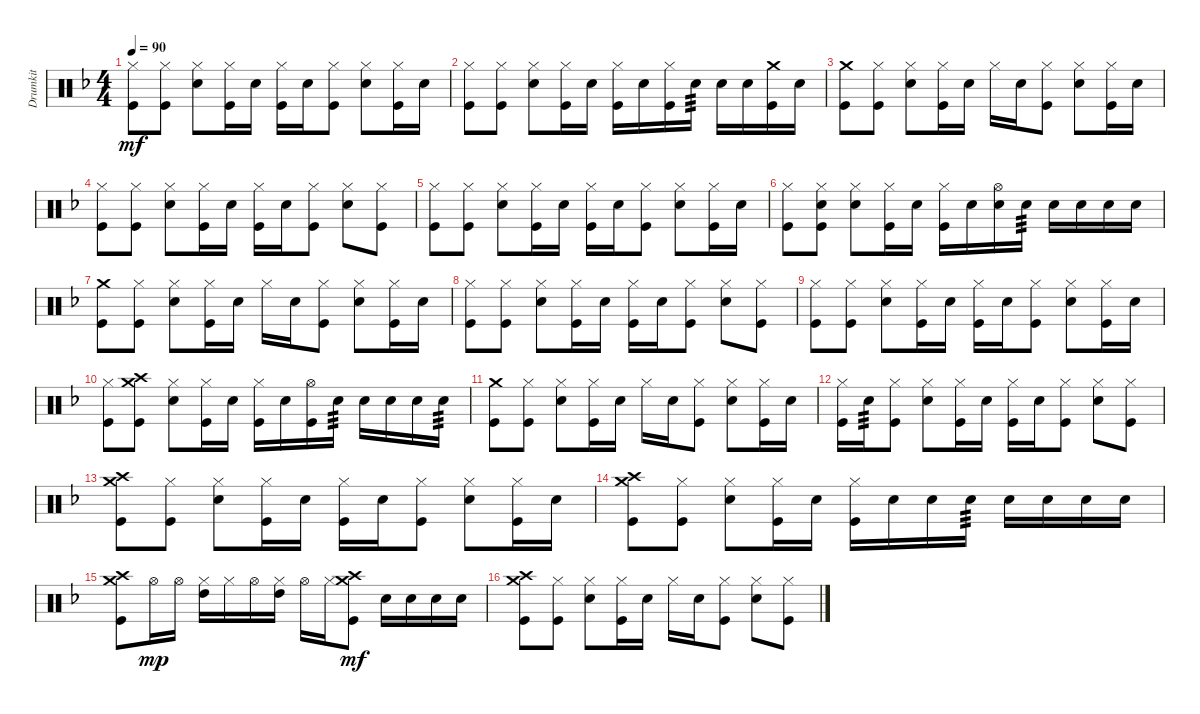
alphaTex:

\track ("Drumkit" "Drumkit") {instrument percussion}
\staff {score}
\articulation defaults
\ts (4 4)
\tempo 90
\clef neutral
\ks f
("Kick (hit)" "Hi-Hat (closed)").8{dy mf} ("Hi-Hat (closed)" "Kick (hit)").8 ("Snare (hit) 2" "Hi-Hat (closed)").8 ("Kick (hit)" "Hi-Hat (closed)").16 "Snare (hit) 2".16 ("Hi-Hat (closed)" "Kick (hit)").16 "Snare (hit) 2".16 ("Kick (hit)" "Hi-Hat (closed)").8 ("Snare (hit) 2" "Hi-Hat (closed)").8 ("Hi-Hat (closed)" "Kick (hit)").16 "Snare (hit) 2".16 |
("Kick (hit)" "Hi-Hat (closed)").8 ("Kick (hit)" "Hi-Hat (closed)").8 ("Snare (hit) 2" "Hi-Hat (closed)").8 ("Kick (hit)" "Hi-Hat (closed)").16 "Snare (hit) 2".16 ("Hi-Hat (closed)" "Kick (hit)").16 "Snare (hit) 2".16 ("Kick (hit)" "Hi-Hat (closed)").16 "Snare (hit) 2".16{tp 3} "Snare (hit) 2".16 "Snare (hit) 2".16 ("Kick (hit)" "Crash medium (hit)").16 "Snare (hit) 2".16 |
("Kick (hit)" "Crash medium (hit)").8 ("Hi-Hat (closed)" "Kick (hit)").8 ("Snare (hit) 2" "Hi-Hat (closed)").8 ("Kick (hit)" "Hi-Hat (closed)").16 "Snare (hit) 2".16 "Hi-Hat (closed)".16 "Snare (hit) 2".16 ("Kick (hit)" "Hi-Hat (closed)").8 ("Snare (hit) 2" "Hi-Hat (closed)").8 ("Hi-Hat (closed)" "Kick (hit)").16 "Snare (hit) 2".16 |
("Kick (hit)" "Hi-Hat (closed)").8 ("Kick (hit)" "Hi-Hat (closed)").8 ("Snare (hit) 2" "Hi-Hat (closed)").8 ("Kick (hit)" "Hi-Hat (closed)").16 "Snare (hit) 2".16 ("Hi-Hat (closed)" "Kick (hit)").16 "Snare (hit) 2".16 ("Kick (hit)" "Hi-Hat (closed)").8 ("Snare (hit) 2" "Hi-Hat (closed)").8 ("Kick (hit)" "Hi-Hat (closed)").8 |
("Kick (hit)" "Hi-Hat (closed)").8 ("Hi-Hat (closed)" "Kick (hit)").8 ("Snare (hit) 2" "Hi-Hat (closed)").8 ("Kick (hit)" "Hi-Hat (closed)").16 "Snare (hit) 2".16 ("Hi-Hat (closed)" "Kick (hit)").16 "Snare (hit) 2".16 ("Kick (hit)" "Hi-Hat (closed)").8 ("Snare (hit) 2" "Hi-Hat (closed)").8 ("Hi-Hat (closed)" "Kick (hit)").16 "Snare (hit) 2".16 |
("Kick (hit)" "Hi-Hat (closed)").8 ("Kick (hit)" "Hi-Hat (closed)" "Snare (hit) 2").8 ("Snare (hit) 2" "Hi-Hat (closed)").8 ("Kick (hit)" "Hi-Hat (closed)").16 "Snare (hit) 2".16 ("Hi-Hat (closed)" "Kick (hit)").16 "Snare (hit) 2".16 ("Hi-Hat (open)" "Snare (hit) 2").16 "Snare (hit) 2".16{tp 3} "Snare (hit) 2".16 "Snare (hit) 2".16 "Snare (hit) 2".16 "Snare (hit) 2".16 |
("Kick (hit)" "Crash medium (hit)").8 ("Hi-Hat (closed)" "Kick (hit)").8 ("Snare (hit) 2" "Hi-Hat (closed)").8 ("Kick (hit)" "Hi-Hat (closed)").16 "Snare (hit) 2".16 "Hi-Hat (closed)".16 "Snare (hit) 2".16 ("Kick (hit)" "Hi-Hat (closed)").8 ("Snare (hit) 2" "Hi-Hat (closed)").8 ("Hi-Hat (closed)" "Kick (hit)").16 "Snare (hit) 2".16 |
("Kick (hit)" "Hi-Hat (closed)").8 ("Kick (hit)" "Hi-Hat (closed)").8 ("Snare (hit) 2" "Hi-Hat (closed)").8 ("Kick (hit)" "Hi-Hat (closed)").16 "Snare (hit) 2".16 ("Hi-Hat (closed)" "Kick (hit)").16 "Snare (hit) 2".16 ("Kick (hit)" "Hi-Hat (closed)").8 ("Snare (hit) 2" "Hi-Hat (closed)").8 ("Kick (hit)" "Hi-Hat (closed)").8 |
("Kick (hit)" "Hi-Hat (closed)").8 ("Hi-Hat (closed)" "Kick (hit)").8 ("Snare (hit) 2" "Hi-Hat (closed)").8 ("Kick (hit)" "Hi-Hat (closed)").16 "Snare (hit) 2".16 ("Hi-Hat (closed)" "Kick (hit)").16 "Snare (hit) 2".16 ("Kick (hit)" "Hi-Hat (closed)").8 ("Snare (hit) 2" "Hi-Hat (closed)").8 ("Hi-Hat (closed)" "Kick (hit)").16 "Snare (hit) 2".16 |
("Kick (hit)" "Hi-Hat (closed)").8 ("Kick (hit)" "Crash high (hit)" "Crash medium (hit)").8 ("Snare (hit) 2" "Hi-Hat (closed)").8 ("Kick (hit)" "Hi-Hat (closed)").16 "Snare (hit) 2".16 ("Hi-Hat (closed)" "Kick (hit)").16 "Snare (hit) 2".16 ("Kick (hit)" "Hi-Hat (open)").16 "Snare (hit) 2".16{tp 3} "Snare (hit) 2".16 "Snare (hit) 2".16 "Snare (hit) 2".16 "Snare (hit) 2".16{tp 3} |
("Kick (hit)" "Crash medium (hit)").8 ("Hi-Hat (closed)" "Kick (hit)").8 ("Snare (hit) 2" "Hi-Hat (closed)").8 ("Kick (hit)" "Hi-Hat (closed)").16 "Snare (hit) 2".16 "Hi-Hat (closed)".16 "Snare (hit) 2".16 ("Kick (hit)" "Hi-Hat (closed)").8 ("Snare (hit) 2" "Hi-Hat (closed)").8 ("Hi-Hat (closed)" "Kick (hit)").16 "Snare (hit) 2".16 |
("Kick (hit)" "Hi-Hat (closed)").16 "Snare (hit) 2".16{tp 3} ("Kick (hit)" "Hi-Hat (closed)").8 ("Snare (hit) 2" "Hi-Hat (closed)").8 ("Kick (hit)" "Hi-Hat (closed)").16 "Snare (hit) 2".16 ("Hi-Hat (closed)" "Kick (hit)").16 "Snare (hit) 2".16 ("Kick (hit)" "Hi-Hat (closed)").8 ("Snare (hit) 2" "Hi-Hat (closed)").8 ("Kick (hit)" "Hi-Hat (closed)").8 |
("Kick (hit)" "Crash high (hit)" "Crash medium (hit)").8 ("Hi-Hat (closed)" "Kick (hit)").8 ("Snare (hit) 2" "Hi-Hat (closed)").8 ("Kick (hit)" "Hi-Hat (closed)").16 "Snare (hit) 2".16 ("Hi-Hat (closed)" "Kick (hit)").16 "Snare (hit) 2".16 ("Kick (hit)" "Hi-Hat (closed)").8 ("Snare (hit) 2" "Hi-Hat (closed)").8 ("Hi-Hat (closed)" "Kick (hit)").16 "Snare (hit) 2".16 |
("Kick (hit)" "Crash high (hit)" "Crash medium (hit)").8 ("Kick (hit)" "Hi-Hat (closed)").8 ("Snare (hit) 2" "Hi-Hat (closed)").8 ("Kick (hit)" "Hi-Hat (closed)").16 "Snare (hit) 2".16 ("Hi-Hat (closed)" "Kick (hit)").16 "Snare (hit) 2".16 "Snare (hit) 2".16 "Snare (hit) 2".16{tp 3} "Snare (hit) 2".16 "Snare (hit) 2".16 "Snare (hit) 2".16 "Snare (hit) 2".16 |
("Kick (hit)" "Crash high (hit)" "Crash medium (hit)").8 "Hi-Hat (open)".16{dy mp} "Hi-Hat (open)".16 ("Hi-Hat (closed)" "High Tom (hit)").16 "Hi-Hat (closed)".16 "Hi-Hat (open)".16 ("Hi-Hat (closed)" "High Tom (hit)").16 "Hi-Hat (open)".16 "Hi-Hat (closed)".16 ("Kick (hit)" "Crash high (hit)" "Crash medium (hit)").8{dy mf} "Snare (hit) 2".16 "Snare (hit) 2".16 "Snare (hit) 2".16 "Snare (hit) 2".16 |
("Kick (hit)" "Crash high (hit)" "Crash medium (hit)").8 ("Kick (hit)" "Hi-Hat (closed)").8 ("Snare (hit) 2" "Hi-Hat (closed)").8 ("Kick (hit)" "Hi-Hat (closed)").16 "Snare (hit) 2".16 "Hi-Hat (closed)".16 "Snare (hit) 2".16 ("Kick (hit)" "Hi-Hat (closed)").8 ("Snare (hit) 2" "Hi-Hat (closed)").8 ("Kick (hit)" "Hi-Hat (closed)").8
